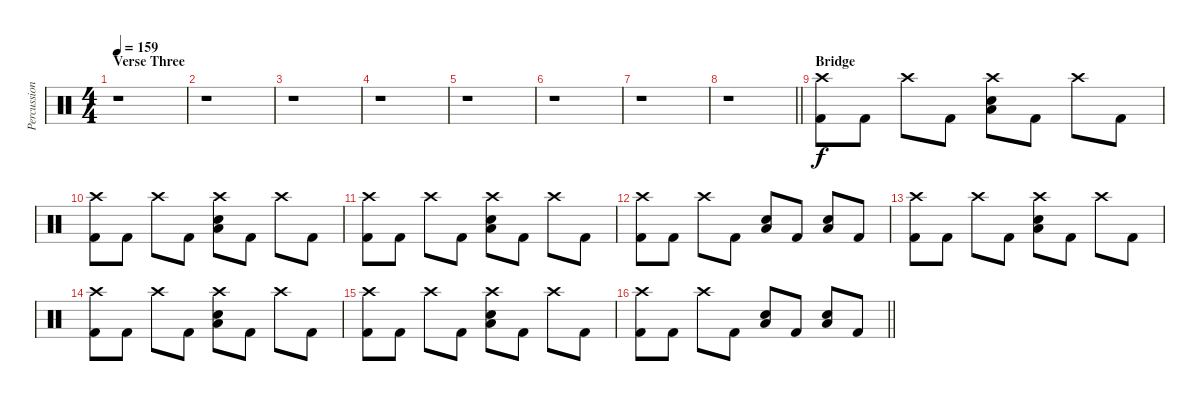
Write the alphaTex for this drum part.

\track ("Percussion" "Percussion") {instrument percussion}
\staff {score}
\articulation defaults
\ts (4 4)
\section ("" "Verse Three")
\tempo 159
\clef neutral
\ks c
r.1{dy f} |
r.1 |
r.1 |
r.1 |
r.1 |
r.1 |
r.1 |
\barLineRight lightlight
r.1 |
\section ("" "Bridge")
("Crash high (hit)" "Kick (hit) 2").8 "Kick (hit) 2".8 "Crash high (hit)".8 "Kick (hit) 2".8 ("Crash high (hit)" "Low Tom (hit)" "Electric Snare (hit)").8 "Kick (hit) 2".8 "Crash high (hit)".8 "Kick (hit) 2".8 |
("Crash high (hit)" "Kick (hit) 2").8 "Kick (hit) 2".8 "Crash high (hit)".8 "Kick (hit) 2".8 ("Crash high (hit)" "Low Tom (hit)" "Electric Snare (hit)").8 "Kick (hit) 2".8 "Crash high (hit)".8 "Kick (hit) 2".8 |
("Crash high (hit)" "Kick (hit) 2").8 "Kick (hit) 2".8 "Crash high (hit)".8 "Kick (hit) 2".8 ("Crash high (hit)" "Low Tom (hit)" "Electric Snare (hit)").8 "Kick (hit) 2".8 "Crash high (hit)".8 "Kick (hit) 2".8 |
("Crash high (hit)" "Kick (hit) 2").8 "Kick (hit) 2".8 "Crash high (hit)".8 "Kick (hit) 2".8 ("Low Tom (hit)" "Electric Snare (hit)").8 "Kick (hit) 2".8 ("Low Tom (hit)" "Electric Snare (hit)").8 "Kick (hit) 2".8 |
("Crash high (hit)" "Kick (hit) 2").8 "Kick (hit) 2".8 "Crash high (hit)".8 "Kick (hit) 2".8 ("Crash high (hit)" "Low Tom (hit)" "Electric Snare (hit)").8 "Kick (hit) 2".8 "Crash high (hit)".8 "Kick (hit) 2".8 |
("Crash high (hit)" "Kick (hit) 2").8 "Kick (hit) 2".8 "Crash high (hit)".8 "Kick (hit) 2".8 ("Crash high (hit)" "Low Tom (hit)" "Electric Snare (hit)").8 "Kick (hit) 2".8 "Crash high (hit)".8 "Kick (hit) 2".8 |
("Crash high (hit)" "Kick (hit) 2").8 "Kick (hit) 2".8 "Crash high (hit)".8 "Kick (hit) 2".8 ("Crash high (hit)" "Low Tom (hit)" "Electric Snare (hit)").8 "Kick (hit) 2".8 "Crash high (hit)".8 "Kick (hit) 2".8 |
\barLineRight lightlight
("Crash high (hit)" "Kick (hit) 2").8 "Kick (hit) 2".8 "Crash high (hit)".8 "Kick (hit) 2".8 ("Low Tom (hit)" "Electric Snare (hit)").8 "Kick (hit) 2".8 ("Low Tom (hit)" "Electric Snare (hit)").8 "Kick (hit) 2".8
